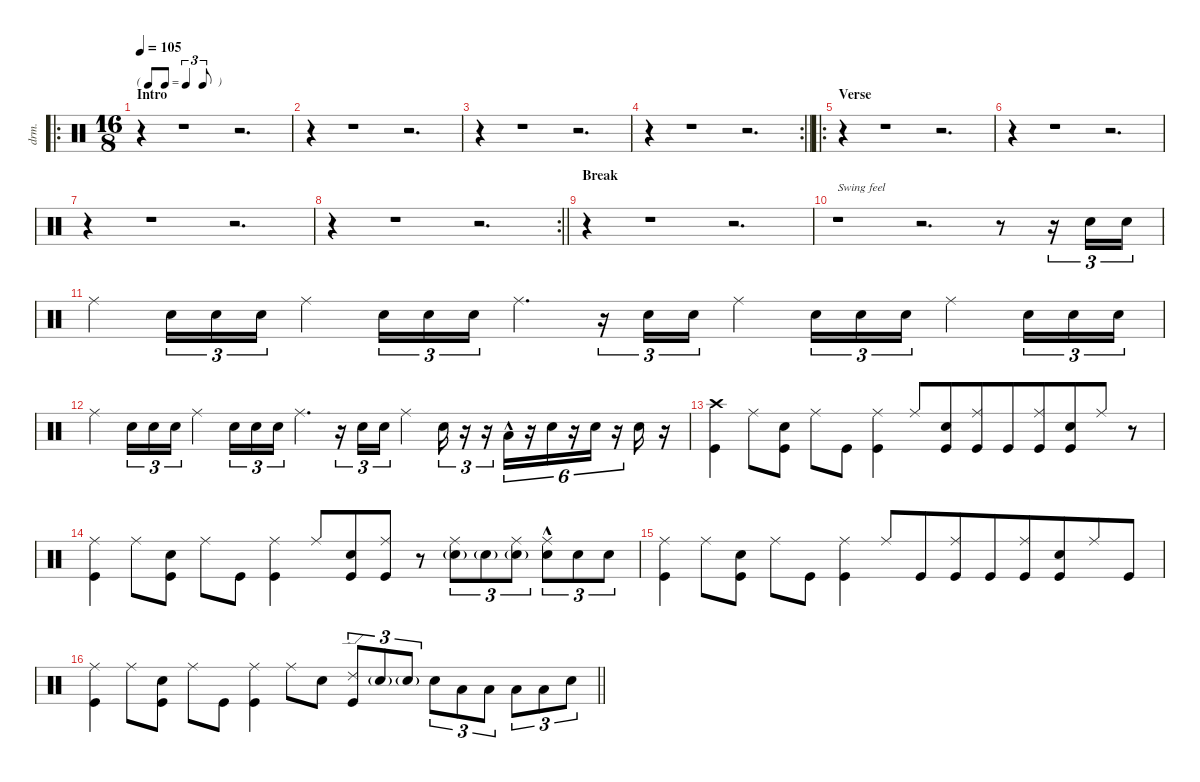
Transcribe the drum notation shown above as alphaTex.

\defaultSystemsLayout 4
\hideDynamics
\bracketExtendMode nobrackets
\otherSystemsTrackNameOrientation horizontal
\track ("Percussion" "drm.") {instrument percussion}
\staff {score}
\articulation defaults
\ro
\ts (16 8)
\beaming (8 2 2 2 10)
\tf triplet8th
\section ("" "Intro")
\tempo 105
\clef neutral
\ks c
r.4{dy f beam Down} r.1{beam Down} r.2{d beam Down} |
r.4{beam Down} r.1{beam Down} r.2{d beam Down} |
r.4{beam Down} r.1{beam Down} r.2{d beam Down} |
\rc 2
\barLineRight lightlight
r.4{beam Down} r.1{beam Down} r.2{d beam Down} |
\ro
\section ("" "Verse")
r.4{beam Down} r.1{beam Down} r.2{d beam Down} |
r.4{beam Down} r.1{beam Down} r.2{d beam Down} |
r.4{beam Down} r.1{beam Down} r.2{d beam Down} |
\rc 2
\barLineRight lightlight
r.4{beam Down} r.1{beam Down} r.2{d beam Down} |
\section ("" "Break")
r.4{beam Down} r.1{beam Down} r.2{d beam Down} |
r.1{txt "Swing feel" beam Down} r.2{d beam Down} r.8{beam Down} r.16{tu (3 2) beam Down} "Snare (hit) 2".16{tu (3 2) beam Down} "Snare (hit) 2".16{tu (3 2) beam Down} |
"Ride (middle)".4{beam Down} "Snare (hit) 2".16{tu (3 2) beam Down} "Snare (hit) 2".16{tu (3 2) beam Down} "Snare (hit) 2".16{tu (3 2) beam Down} "Ride (middle)".4{beam Down} "Snare (hit) 2".16{tu (3 2) beam Down} "Snare (hit) 2".16{tu (3 2) beam Down} "Snare (hit) 2".16{tu (3 2) beam Down} "Ride (middle)".4{d beam Down} r.16{tu (3 2) beam Down} "Snare (hit) 2".16{tu (3 2) beam Down} "Snare (hit) 2".16{tu (3 2) beam Down} "Ride (middle)".4{beam Down} "Snare (hit) 2".16{tu (3 2) beam Down} "Snare (hit) 2".16{tu (3 2) beam Down} "Snare (hit) 2".16{tu (3 2) beam Down} "Ride (middle)".4{beam Down} "Snare (hit) 2".16{tu (3 2) beam Down} "Snare (hit) 2".16{tu (3 2) beam Down} "Snare (hit) 2".16{tu (3 2) beam Down} |
"Ride (middle)".4{beam Down} "Snare (hit) 2".16{tu (3 2) beam Down} "Snare (hit) 2".16{tu (3 2) beam Down} "Snare (hit) 2".16{tu (3 2) beam Down} "Ride (middle)".4{beam Down} "Snare (hit) 2".16{tu (3 2) beam Down} "Snare (hit) 2".16{tu (3 2) beam Down} "Snare (hit) 2".16{tu (3 2) beam Down} "Ride (middle)".4{d beam Down} r.16{tu (3 2) beam Down} "Snare (hit) 2".16{tu (3 2) beam Down} "Snare (hit) 2".16{tu (3 2) beam Down} "Ride (middle)".4{beam Down} "Snare (hit) 2".16{tu (3 2) beam Down} r.16{tu (3 2) beam Down} r.16{tu (3 2) beam Down} "Low Floor Tom (hit)"{hac}.16{tu (6 4) beam Down} r.16{tu (6 4) beam Down} "Snare (hit) 2".16{tu (6 4) beam Down} r.16{tu (6 4) beam Down} "Snare (hit) 2".16{tu (6 4) beam Down} r.16{tu (6 4) beam Down} "Snare (hit) 2".16{beam Down} r.16{beam Down} |
("Crash high (hit)" "Kick (hit)").4{beam Down} "Ride (middle)".8{beam Down} ("Snare (hit) 2" "Kick (hit)").8{beam Down} "Ride (middle)".8{beam Down} "Kick (hit)".8{beam Down} ("Ride (middle)" "Kick (hit)").4{beam Down} "Ride (middle)".8{beam Up} ("Snare (hit) 2" "Kick (hit)").8{beam Up} ("Ride (middle)" "Kick (hit)").8{beam Up} "Kick (hit)".8{beam Up} ("Ride (middle)" "Kick (hit)").8{beam Up} ("Snare (hit) 2" "Kick (hit)").8{beam Up} "Ride (middle)".8{beam Up} r.8{beam Up} |
("Ride (middle)" "Kick (hit)").4{beam Down} "Ride (middle)".8{beam Down} ("Snare (hit) 2" "Kick (hit)").8{beam Down} "Ride (middle)".8{beam Down} "Kick (hit)".8{beam Down} ("Ride (middle)" "Kick (hit)").4{beam Down} "Ride (middle)".8{beam Up} ("Snare (hit) 2" "Kick (hit)").8{beam Up} ("Ride (middle)" "Kick (hit)").8{beam Up} r.8{beam Up} ("Ride (middle)" "Snare (hit) 2"{g}).8{tu (3 2) beam Down} "Snare (hit) 2"{g}.8{tu (3 2) dy mf beam Down} ("Ride (middle)" "Snare (hit) 2"{g}).8{tu (3 2) dy f beam Down} ("Ride (middle)"{hac} "Snare (hit) 2").8{tu (3 2) beam Down} "Snare (hit) 2".8{tu (3 2) beam Down} "Snare (hit) 2".8{tu (3 2) beam Down} |
("Ride (middle)" "Kick (hit)").4{beam Down} "Ride (middle)".8{beam Down} ("Snare (hit) 2" "Kick (hit)").8{beam Down} "Ride (middle)".8{beam Down} "Kick (hit)".8{beam Down} ("Ride (middle)" "Kick (hit)").4{beam Down} "Ride (middle)".8{beam Up} "Kick (hit)".8{beam Up} ("Ride (middle)" "Kick (hit)").8{beam Up} "Kick (hit)".8{beam Up} ("Ride (middle)" "Kick (hit)").8{beam Up} ("Snare (hit) 2" "Kick (hit)").8{beam Up} "Ride (middle)".8{beam Up} "Kick (hit)".8{beam Up} |
\barLineRight lightlight
("Ride (middle)" "Kick (hit)").4{beam Down} "Ride (middle)".8{beam Down} ("Snare (hit) 2" "Kick (hit)").8{beam Down} "Ride (middle)".8{beam Down} "Kick (hit)".8{beam Down} ("Ride (middle)" "Kick (hit)").4{beam Down} "Ride (middle)".8{beam Down} "Snare (hit) 2".8{beam Down} ("Ride (edge) 2" "Kick (hit)").8{tu (3 2) beam Up} "Snare (hit) 2"{g}.8{tu (3 2) dy mf beam Up} "Snare (hit) 2"{g}.8{tu (3 2) beam Up} "Snare (hit) 2".8{tu (3 2) dy f beam Down} "Low Floor Tom (hit)".8{tu (3 2) beam Down} "Low Floor Tom (hit)".8{tu (3 2) beam Down} "Low Floor Tom (hit)".8{tu (3 2) beam Down} "Low Floor Tom (hit)".8{tu (3 2) beam Down} "Snare (hit) 2".8{tu (3 2) beam Down}
